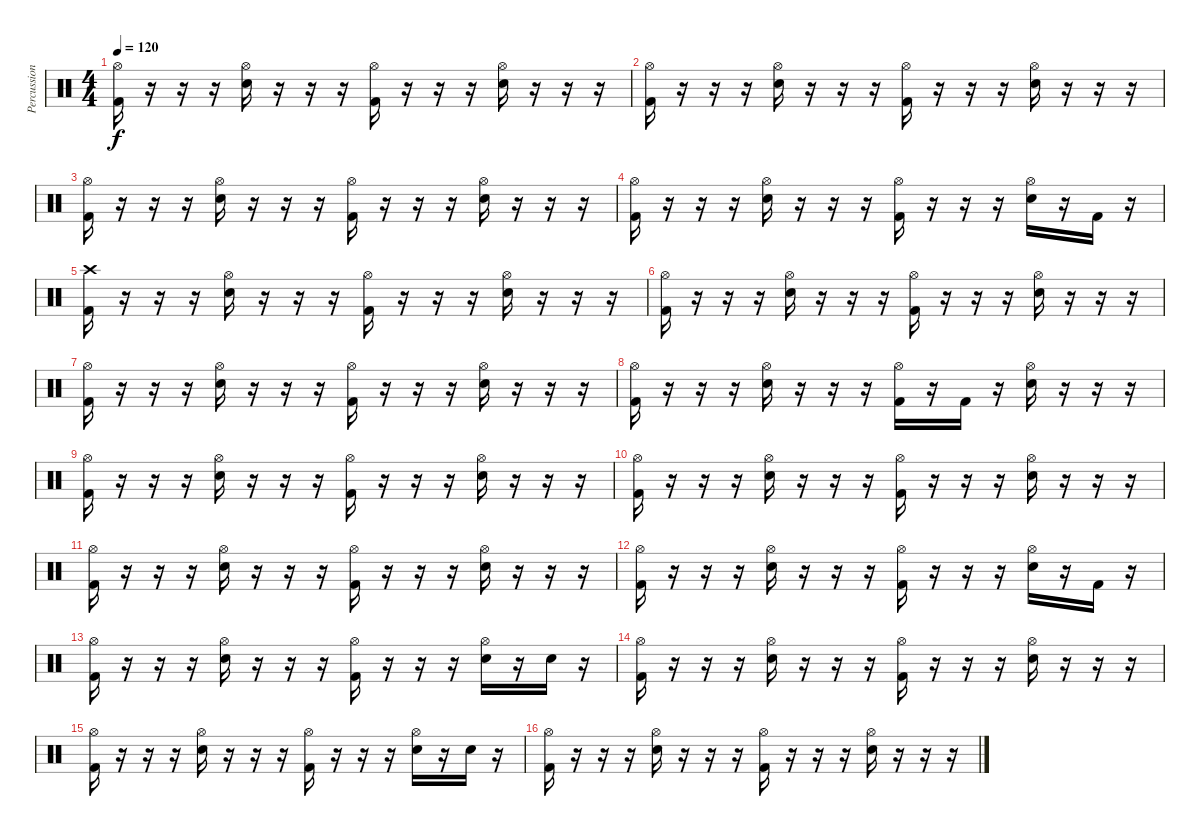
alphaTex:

\track ("Percussion" "Percussion") {instrument percussion}
\staff {score}
\articulation defaults
\ts (4 4)
\tempo 120
\clef neutral
\ks c
("Hi-Hat (open)" "Kick (hit) 2").16{dy f} r.16 r.16 r.16 ("Hi-Hat (open)" "Electric Snare (hit)").16 r.16 r.16 r.16 ("Hi-Hat (open)" "Kick (hit) 2").16 r.16 r.16 r.16 ("Hi-Hat (open)" "Electric Snare (hit)").16 r.16 r.16 r.16 |
("Hi-Hat (open)" "Kick (hit) 2").16 r.16 r.16 r.16 ("Hi-Hat (open)" "Electric Snare (hit)").16 r.16 r.16 r.16 ("Hi-Hat (open)" "Kick (hit) 2").16 r.16 r.16 r.16 ("Hi-Hat (open)" "Electric Snare (hit)").16 r.16 r.16 r.16 |
("Hi-Hat (open)" "Kick (hit) 2").16 r.16 r.16 r.16 ("Hi-Hat (open)" "Electric Snare (hit)").16 r.16 r.16 r.16 ("Hi-Hat (open)" "Kick (hit) 2").16 r.16 r.16 r.16 ("Hi-Hat (open)" "Electric Snare (hit)").16 r.16 r.16 r.16 |
("Hi-Hat (open)" "Kick (hit) 2").16 r.16 r.16 r.16 ("Hi-Hat (open)" "Electric Snare (hit)").16 r.16 r.16 r.16 ("Hi-Hat (open)" "Kick (hit) 2").16 r.16 r.16 r.16 ("Hi-Hat (open)" "Electric Snare (hit)").16 r.16 "Kick (hit) 2".16 r.16 |
("Crash high (hit)" "Kick (hit) 2").16 r.16 r.16 r.16 ("Hi-Hat (open)" "Electric Snare (hit)").16 r.16 r.16 r.16 ("Hi-Hat (open)" "Kick (hit) 2").16 r.16 r.16 r.16 ("Hi-Hat (open)" "Electric Snare (hit)").16 r.16 r.16 r.16 |
("Hi-Hat (open)" "Kick (hit) 2").16 r.16 r.16 r.16 ("Hi-Hat (open)" "Electric Snare (hit)").16 r.16 r.16 r.16 ("Hi-Hat (open)" "Kick (hit) 2").16 r.16 r.16 r.16 ("Hi-Hat (open)" "Electric Snare (hit)").16 r.16 r.16 r.16 |
("Hi-Hat (open)" "Kick (hit) 2").16 r.16 r.16 r.16 ("Hi-Hat (open)" "Electric Snare (hit)").16 r.16 r.16 r.16 ("Hi-Hat (open)" "Kick (hit) 2").16 r.16 r.16 r.16 ("Hi-Hat (open)" "Electric Snare (hit)").16 r.16 r.16 r.16 |
("Hi-Hat (open)" "Kick (hit) 2").16 r.16 r.16 r.16 ("Hi-Hat (open)" "Electric Snare (hit)").16 r.16 r.16 r.16 ("Hi-Hat (open)" "Kick (hit) 2").16 r.16 "Kick (hit) 2".16 r.16 ("Hi-Hat (open)" "Electric Snare (hit)").16 r.16 r.16 r.16 |
("Hi-Hat (open)" "Kick (hit) 2").16 r.16 r.16 r.16 ("Hi-Hat (open)" "Electric Snare (hit)").16 r.16 r.16 r.16 ("Hi-Hat (open)" "Kick (hit) 2").16 r.16 r.16 r.16 ("Hi-Hat (open)" "Electric Snare (hit)").16 r.16 r.16 r.16 |
("Hi-Hat (open)" "Kick (hit) 2").16 r.16 r.16 r.16 ("Hi-Hat (open)" "Electric Snare (hit)").16 r.16 r.16 r.16 ("Hi-Hat (open)" "Kick (hit) 2").16 r.16 r.16 r.16 ("Hi-Hat (open)" "Electric Snare (hit)").16 r.16 r.16 r.16 |
("Hi-Hat (open)" "Kick (hit) 2").16 r.16 r.16 r.16 ("Hi-Hat (open)" "Electric Snare (hit)").16 r.16 r.16 r.16 ("Hi-Hat (open)" "Kick (hit) 2").16 r.16 r.16 r.16 ("Hi-Hat (open)" "Electric Snare (hit)").16 r.16 r.16 r.16 |
("Hi-Hat (open)" "Kick (hit) 2").16 r.16 r.16 r.16 ("Hi-Hat (open)" "Electric Snare (hit)").16 r.16 r.16 r.16 ("Hi-Hat (open)" "Kick (hit) 2").16 r.16 r.16 r.16 ("Hi-Hat (open)" "Electric Snare (hit)").16 r.16 "Kick (hit) 2".16 r.16 |
("Hi-Hat (open)" "Kick (hit) 2").16 r.16 r.16 r.16 ("Hi-Hat (open)" "Electric Snare (hit)").16 r.16 r.16 r.16 ("Hi-Hat (open)" "Kick (hit) 2").16 r.16 r.16 r.16 ("Hi-Hat (open)" "Electric Snare (hit)").16 r.16 "Electric Snare (hit)".16 r.16 |
("Hi-Hat (open)" "Kick (hit) 2").16 r.16 r.16 r.16 ("Hi-Hat (open)" "Electric Snare (hit)").16 r.16 r.16 r.16 ("Hi-Hat (open)" "Kick (hit) 2").16 r.16 r.16 r.16 ("Hi-Hat (open)" "Electric Snare (hit)").16 r.16 r.16 r.16 |
("Hi-Hat (open)" "Kick (hit) 2").16 r.16 r.16 r.16 ("Hi-Hat (open)" "Electric Snare (hit)").16 r.16 r.16 r.16 ("Hi-Hat (open)" "Kick (hit) 2").16 r.16 r.16 r.16 ("Hi-Hat (open)" "Electric Snare (hit)").16 r.16 "Electric Snare (hit)".16 r.16 |
("Hi-Hat (open)" "Kick (hit) 2").16 r.16 r.16 r.16 ("Hi-Hat (open)" "Electric Snare (hit)").16 r.16 r.16 r.16 ("Hi-Hat (open)" "Kick (hit) 2").16 r.16 r.16 r.16 ("Hi-Hat (open)" "Electric Snare (hit)").16 r.16 r.16 r.16
